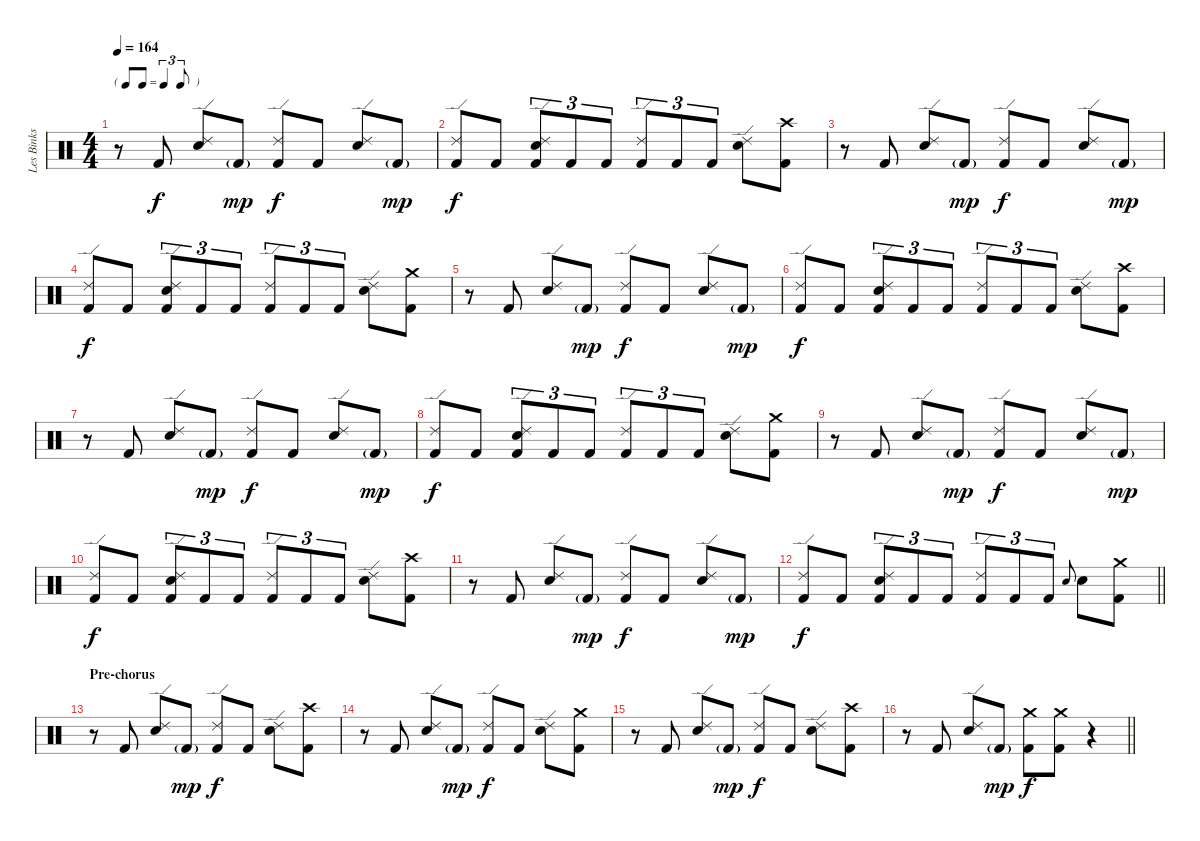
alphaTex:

\track ("Les Binks" "Les Binks") {instrument percussion}
\staff {score}
\articulation defaults
\ts (4 4)
\tf triplet8th
\tempo 164
\clef neutral
\ks c
r.8{dy f} "Kick (hit) 2".8 ("Ride (edge) 2" "Electric Snare (hit)").8 "Kick (hit) 2"{g}.8{dy mp} ("Ride (edge) 2" "Kick (hit) 2").8{dy f} "Kick (hit) 2".8 ("Ride (edge) 2" "Electric Snare (hit)").8 "Kick (hit) 2"{g}.8{dy mp} |
("Ride (edge) 2" "Kick (hit) 2").8{dy f} "Kick (hit) 2".8 ("Ride (edge) 2" "Electric Snare (hit)" "Kick (hit) 2").8{tu (3 2)} "Kick (hit) 2".8{tu (3 2)} "Kick (hit) 2".8{tu (3 2)} ("Ride (edge) 2" "Kick (hit) 2").8{tu (3 2)} "Kick (hit) 2".8{tu (3 2)} "Kick (hit) 2".8{tu (3 2)} ("Ride (edge) 2" "Electric Snare (hit)").8 ("Crash high (hit)" "Kick (hit) 2").8 |
r.8 "Kick (hit) 2".8 ("Ride (edge) 2" "Electric Snare (hit)").8 "Kick (hit) 2"{g}.8{dy mp} ("Ride (edge) 2" "Kick (hit) 2").8{dy f} "Kick (hit) 2".8 ("Ride (edge) 2" "Electric Snare (hit)").8 "Kick (hit) 2"{g}.8{dy mp} |
("Ride (edge) 2" "Kick (hit) 2").8{dy f} "Kick (hit) 2".8 ("Ride (edge) 2" "Electric Snare (hit)" "Kick (hit) 2").8{tu (3 2)} "Kick (hit) 2".8{tu (3 2)} "Kick (hit) 2".8{tu (3 2)} ("Ride (edge) 2" "Kick (hit) 2").8{tu (3 2)} "Kick (hit) 2".8{tu (3 2)} "Kick (hit) 2".8{tu (3 2)} ("Ride (edge) 2" "Electric Snare (hit)").8 ("Crash medium (hit)" "Kick (hit) 2").8 |
r.8 "Kick (hit) 2".8 ("Ride (edge) 2" "Electric Snare (hit)").8 "Kick (hit) 2"{g}.8{dy mp} ("Ride (edge) 2" "Kick (hit) 2").8{dy f} "Kick (hit) 2".8 ("Ride (edge) 2" "Electric Snare (hit)").8 "Kick (hit) 2"{g}.8{dy mp} |
("Ride (edge) 2" "Kick (hit) 2").8{dy f} "Kick (hit) 2".8 ("Ride (edge) 2" "Electric Snare (hit)" "Kick (hit) 2").8{tu (3 2)} "Kick (hit) 2".8{tu (3 2)} "Kick (hit) 2".8{tu (3 2)} ("Ride (edge) 2" "Kick (hit) 2").8{tu (3 2)} "Kick (hit) 2".8{tu (3 2)} "Kick (hit) 2".8{tu (3 2)} ("Ride (edge) 2" "Electric Snare (hit)").8 ("Crash high (hit)" "Kick (hit) 2").8 |
r.8 "Kick (hit) 2".8 ("Ride (edge) 2" "Electric Snare (hit)").8 "Kick (hit) 2"{g}.8{dy mp} ("Ride (edge) 2" "Kick (hit) 2").8{dy f} "Kick (hit) 2".8 ("Ride (edge) 2" "Electric Snare (hit)").8 "Kick (hit) 2"{g}.8{dy mp} |
("Ride (edge) 2" "Kick (hit) 2").8{dy f} "Kick (hit) 2".8 ("Ride (edge) 2" "Electric Snare (hit)" "Kick (hit) 2").8{tu (3 2)} "Kick (hit) 2".8{tu (3 2)} "Kick (hit) 2".8{tu (3 2)} ("Ride (edge) 2" "Kick (hit) 2").8{tu (3 2)} "Kick (hit) 2".8{tu (3 2)} "Kick (hit) 2".8{tu (3 2)} ("Ride (edge) 2" "Electric Snare (hit)").8 ("Crash medium (hit)" "Kick (hit) 2").8 |
r.8 "Kick (hit) 2".8 ("Ride (edge) 2" "Electric Snare (hit)").8 "Kick (hit) 2"{g}.8{dy mp} ("Ride (edge) 2" "Kick (hit) 2").8{dy f} "Kick (hit) 2".8 ("Ride (edge) 2" "Electric Snare (hit)").8 "Kick (hit) 2"{g}.8{dy mp} |
("Ride (edge) 2" "Kick (hit) 2").8{dy f} "Kick (hit) 2".8 ("Ride (edge) 2" "Electric Snare (hit)" "Kick (hit) 2").8{tu (3 2)} "Kick (hit) 2".8{tu (3 2)} "Kick (hit) 2".8{tu (3 2)} ("Ride (edge) 2" "Kick (hit) 2").8{tu (3 2)} "Kick (hit) 2".8{tu (3 2)} "Kick (hit) 2".8{tu (3 2)} ("Ride (edge) 2" "Electric Snare (hit)").8 ("Crash high (hit)" "Kick (hit) 2").8 |
r.8 "Kick (hit) 2".8 ("Ride (edge) 2" "Electric Snare (hit)").8 "Kick (hit) 2"{g}.8{dy mp} ("Ride (edge) 2" "Kick (hit) 2").8{dy f} "Kick (hit) 2".8 ("Ride (edge) 2" "Electric Snare (hit)").8 "Kick (hit) 2"{g}.8{dy mp} |
\barLineRight lightlight
("Ride (edge) 2" "Kick (hit) 2").8{dy f} "Kick (hit) 2".8 ("Ride (edge) 2" "Electric Snare (hit)" "Kick (hit) 2").8{tu (3 2)} "Kick (hit) 2".8{tu (3 2)} "Kick (hit) 2".8{tu (3 2)} ("Ride (edge) 2" "Kick (hit) 2").8{tu (3 2)} "Kick (hit) 2".8{tu (3 2)} "Kick (hit) 2".8{tu (3 2)} "Electric Snare (hit)".8{gr onbeat} "Electric Snare (hit)".8 ("Crash medium (hit)" "Kick (hit) 2").8 |
\section ("" "Pre-chorus")
r.8 "Kick (hit) 2".8 ("Ride (edge) 2" "Electric Snare (hit)").8 "Kick (hit) 2"{g}.8{dy mp} ("Ride (edge) 2" "Kick (hit) 2").8{dy f} "Kick (hit) 2".8 ("Ride (edge) 2" "Electric Snare (hit)").8 ("Crash high (hit)" "Kick (hit) 2").8 |
r.8 "Kick (hit) 2".8 ("Ride (edge) 2" "Electric Snare (hit)").8 "Kick (hit) 2"{g}.8{dy mp} ("Ride (edge) 2" "Kick (hit) 2").8{dy f} "Kick (hit) 2".8 ("Ride (edge) 2" "Electric Snare (hit)").8 ("Crash medium (hit)" "Kick (hit) 2").8 |
r.8 "Kick (hit) 2".8 ("Ride (edge) 2" "Electric Snare (hit)").8 "Kick (hit) 2"{g}.8{dy mp} ("Ride (edge) 2" "Kick (hit) 2").8{dy f} "Kick (hit) 2".8 ("Ride (edge) 2" "Electric Snare (hit)").8 ("Crash high (hit)" "Kick (hit) 2").8 |
\barLineRight lightlight
r.8 "Kick (hit) 2".8 ("Ride (edge) 2" "Electric Snare (hit)").8 "Kick (hit) 2"{g}.8{dy mp} ("Crash medium (hit)" "Kick (hit) 2").8{dy f} ("Crash medium (hit)" "Kick (hit) 2").8 r.4
